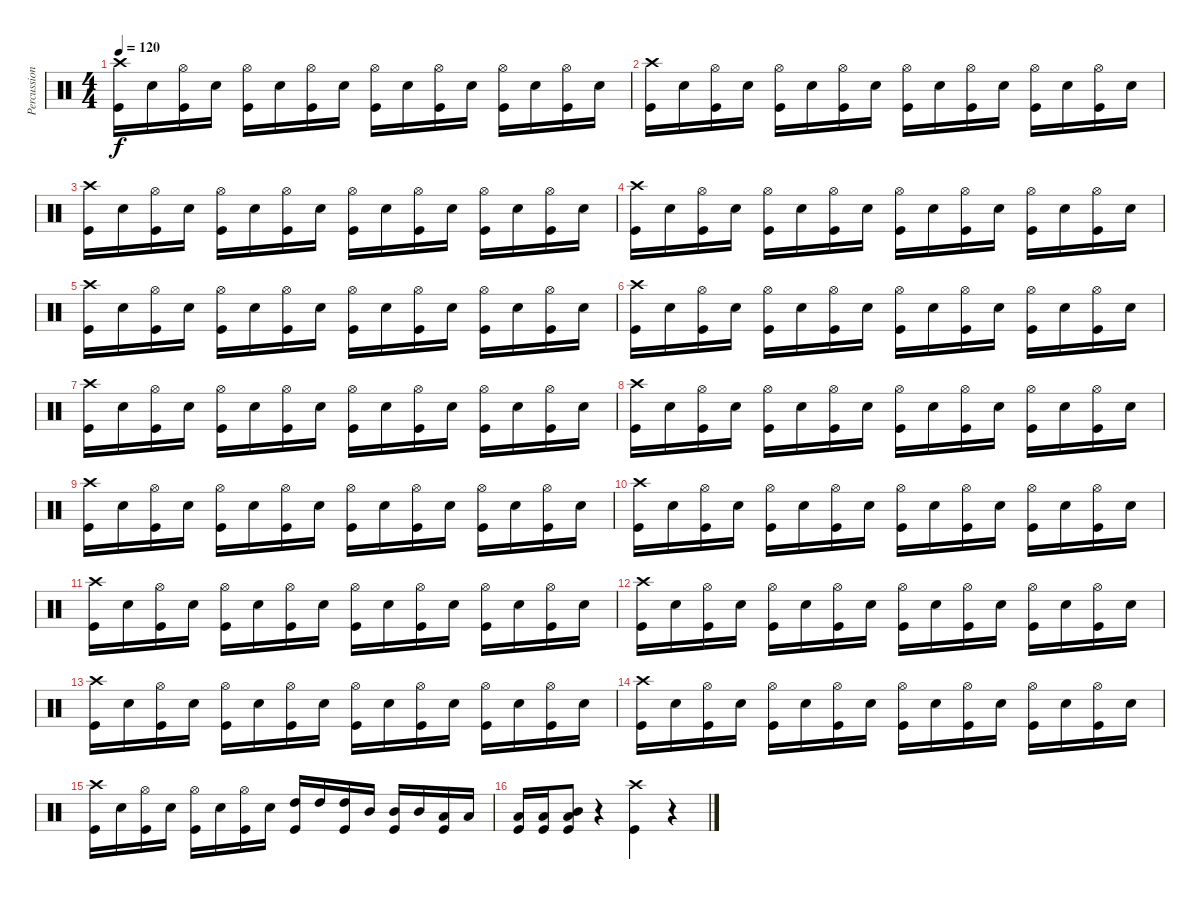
\track ("Percussioni" "Percussion") {instrument percussion}
\staff {score}
\articulation defaults
\ts (4 4)
\tempo 120
\clef neutral
\ks c
("Crash high (hit)" "Kick (hit)").16{dy f} "Electric Snare (hit)".16 ("Hi-Hat (open)" "Kick (hit)").16 "Electric Snare (hit)".16 ("Hi-Hat (open)" "Kick (hit)").16 "Electric Snare (hit)".16 ("Hi-Hat (open)" "Kick (hit)").16 "Electric Snare (hit)".16 ("Hi-Hat (open)" "Kick (hit)").16 "Electric Snare (hit)".16 ("Hi-Hat (open)" "Kick (hit)").16 "Electric Snare (hit)".16 ("Hi-Hat (open)" "Kick (hit)").16 "Electric Snare (hit)".16 ("Hi-Hat (open)" "Kick (hit)").16 "Electric Snare (hit)".16 |
("Crash high (hit)" "Kick (hit)").16 "Electric Snare (hit)".16 ("Hi-Hat (open)" "Kick (hit)").16 "Electric Snare (hit)".16 ("Hi-Hat (open)" "Kick (hit)").16 "Electric Snare (hit)".16 ("Hi-Hat (open)" "Kick (hit)").16 "Electric Snare (hit)".16 ("Hi-Hat (open)" "Kick (hit)").16 "Electric Snare (hit)".16 ("Hi-Hat (open)" "Kick (hit)").16 "Electric Snare (hit)".16 ("Hi-Hat (open)" "Kick (hit)").16 "Electric Snare (hit)".16 ("Hi-Hat (open)" "Kick (hit)").16 "Electric Snare (hit)".16 |
("Crash high (hit)" "Kick (hit)").16 "Electric Snare (hit)".16 ("Hi-Hat (open)" "Kick (hit)").16 "Electric Snare (hit)".16 ("Hi-Hat (open)" "Kick (hit)").16 "Electric Snare (hit)".16 ("Hi-Hat (open)" "Kick (hit)").16 "Electric Snare (hit)".16 ("Hi-Hat (open)" "Kick (hit)").16 "Electric Snare (hit)".16 ("Hi-Hat (open)" "Kick (hit)").16 "Electric Snare (hit)".16 ("Hi-Hat (open)" "Kick (hit)").16 "Electric Snare (hit)".16 ("Hi-Hat (open)" "Kick (hit)").16 "Electric Snare (hit)".16 |
("Crash high (hit)" "Kick (hit)").16 "Electric Snare (hit)".16 ("Hi-Hat (open)" "Kick (hit)").16 "Electric Snare (hit)".16 ("Hi-Hat (open)" "Kick (hit)").16 "Electric Snare (hit)".16 ("Hi-Hat (open)" "Kick (hit)").16 "Electric Snare (hit)".16 ("Hi-Hat (open)" "Kick (hit)").16 "Electric Snare (hit)".16 ("Hi-Hat (open)" "Kick (hit)").16 "Electric Snare (hit)".16 ("Hi-Hat (open)" "Kick (hit)").16 "Electric Snare (hit)".16 ("Hi-Hat (open)" "Kick (hit)").16 "Electric Snare (hit)".16 |
("Crash high (hit)" "Kick (hit)").16 "Electric Snare (hit)".16 ("Hi-Hat (open)" "Kick (hit)").16 "Electric Snare (hit)".16 ("Hi-Hat (open)" "Kick (hit)").16 "Electric Snare (hit)".16 ("Hi-Hat (open)" "Kick (hit)").16 "Electric Snare (hit)".16 ("Hi-Hat (open)" "Kick (hit)").16 "Electric Snare (hit)".16 ("Hi-Hat (open)" "Kick (hit)").16 "Electric Snare (hit)".16 ("Hi-Hat (open)" "Kick (hit)").16 "Electric Snare (hit)".16 ("Hi-Hat (open)" "Kick (hit)").16 "Electric Snare (hit)".16 |
("Crash high (hit)" "Kick (hit)").16 "Electric Snare (hit)".16 ("Hi-Hat (open)" "Kick (hit)").16 "Electric Snare (hit)".16 ("Hi-Hat (open)" "Kick (hit)").16 "Electric Snare (hit)".16 ("Hi-Hat (open)" "Kick (hit)").16 "Electric Snare (hit)".16 ("Hi-Hat (open)" "Kick (hit)").16 "Electric Snare (hit)".16 ("Hi-Hat (open)" "Kick (hit)").16 "Electric Snare (hit)".16 ("Hi-Hat (open)" "Kick (hit)").16 "Electric Snare (hit)".16 ("Hi-Hat (open)" "Kick (hit)").16 "Electric Snare (hit)".16 |
("Crash high (hit)" "Kick (hit)").16 "Electric Snare (hit)".16 ("Hi-Hat (open)" "Kick (hit)").16 "Electric Snare (hit)".16 ("Hi-Hat (open)" "Kick (hit)").16 "Electric Snare (hit)".16 ("Hi-Hat (open)" "Kick (hit)").16 "Electric Snare (hit)".16 ("Hi-Hat (open)" "Kick (hit)").16 "Electric Snare (hit)".16 ("Hi-Hat (open)" "Kick (hit)").16 "Electric Snare (hit)".16 ("Hi-Hat (open)" "Kick (hit)").16 "Electric Snare (hit)".16 ("Hi-Hat (open)" "Kick (hit)").16 "Electric Snare (hit)".16 |
("Crash high (hit)" "Kick (hit)").16 "Electric Snare (hit)".16 ("Hi-Hat (open)" "Kick (hit)").16 "Electric Snare (hit)".16 ("Hi-Hat (open)" "Kick (hit)").16 "Electric Snare (hit)".16 ("Hi-Hat (open)" "Kick (hit)").16 "Electric Snare (hit)".16 ("Hi-Hat (open)" "Kick (hit)").16 "Electric Snare (hit)".16 ("Hi-Hat (open)" "Kick (hit)").16 "Electric Snare (hit)".16 ("Hi-Hat (open)" "Kick (hit)").16 "Electric Snare (hit)".16 ("Hi-Hat (open)" "Kick (hit)").16 "Electric Snare (hit)".16 |
("Crash high (hit)" "Kick (hit)").16 "Electric Snare (hit)".16 ("Hi-Hat (open)" "Kick (hit)").16 "Electric Snare (hit)".16 ("Hi-Hat (open)" "Kick (hit)").16 "Electric Snare (hit)".16 ("Hi-Hat (open)" "Kick (hit)").16 "Electric Snare (hit)".16 ("Hi-Hat (open)" "Kick (hit)").16 "Electric Snare (hit)".16 ("Hi-Hat (open)" "Kick (hit)").16 "Electric Snare (hit)".16 ("Hi-Hat (open)" "Kick (hit)").16 "Electric Snare (hit)".16 ("Hi-Hat (open)" "Kick (hit)").16 "Electric Snare (hit)".16 |
("Crash high (hit)" "Kick (hit)").16 "Electric Snare (hit)".16 ("Hi-Hat (open)" "Kick (hit)").16 "Electric Snare (hit)".16 ("Hi-Hat (open)" "Kick (hit)").16 "Electric Snare (hit)".16 ("Hi-Hat (open)" "Kick (hit)").16 "Electric Snare (hit)".16 ("Hi-Hat (open)" "Kick (hit)").16 "Electric Snare (hit)".16 ("Hi-Hat (open)" "Kick (hit)").16 "Electric Snare (hit)".16 ("Hi-Hat (open)" "Kick (hit)").16 "Electric Snare (hit)".16 ("Hi-Hat (open)" "Kick (hit)").16 "Electric Snare (hit)".16 |
("Crash high (hit)" "Kick (hit)").16 "Electric Snare (hit)".16 ("Hi-Hat (open)" "Kick (hit)").16 "Electric Snare (hit)".16 ("Hi-Hat (open)" "Kick (hit)").16 "Electric Snare (hit)".16 ("Hi-Hat (open)" "Kick (hit)").16 "Electric Snare (hit)".16 ("Hi-Hat (open)" "Kick (hit)").16 "Electric Snare (hit)".16 ("Hi-Hat (open)" "Kick (hit)").16 "Electric Snare (hit)".16 ("Hi-Hat (open)" "Kick (hit)").16 "Electric Snare (hit)".16 ("Hi-Hat (open)" "Kick (hit)").16 "Electric Snare (hit)".16 |
("Crash high (hit)" "Kick (hit)").16 "Electric Snare (hit)".16 ("Hi-Hat (open)" "Kick (hit)").16 "Electric Snare (hit)".16 ("Hi-Hat (open)" "Kick (hit)").16 "Electric Snare (hit)".16 ("Hi-Hat (open)" "Kick (hit)").16 "Electric Snare (hit)".16 ("Hi-Hat (open)" "Kick (hit)").16 "Electric Snare (hit)".16 ("Hi-Hat (open)" "Kick (hit)").16 "Electric Snare (hit)".16 ("Hi-Hat (open)" "Kick (hit)").16 "Electric Snare (hit)".16 ("Hi-Hat (open)" "Kick (hit)").16 "Electric Snare (hit)".16 |
("Crash high (hit)" "Kick (hit)").16 "Electric Snare (hit)".16 ("Hi-Hat (open)" "Kick (hit)").16 "Electric Snare (hit)".16 ("Hi-Hat (open)" "Kick (hit)").16 "Electric Snare (hit)".16 ("Hi-Hat (open)" "Kick (hit)").16 "Electric Snare (hit)".16 ("Hi-Hat (open)" "Kick (hit)").16 "Electric Snare (hit)".16 ("Hi-Hat (open)" "Kick (hit)").16 "Electric Snare (hit)".16 ("Hi-Hat (open)" "Kick (hit)").16 "Electric Snare (hit)".16 ("Hi-Hat (open)" "Kick (hit)").16 "Electric Snare (hit)".16 |
("Crash high (hit)" "Kick (hit)").16 "Electric Snare (hit)".16 ("Hi-Hat (open)" "Kick (hit)").16 "Electric Snare (hit)".16 ("Hi-Hat (open)" "Kick (hit)").16 "Electric Snare (hit)".16 ("Hi-Hat (open)" "Kick (hit)").16 "Electric Snare (hit)".16 ("Hi-Hat (open)" "Kick (hit)").16 "Electric Snare (hit)".16 ("Hi-Hat (open)" "Kick (hit)").16 "Electric Snare (hit)".16 ("Hi-Hat (open)" "Kick (hit)").16 "Electric Snare (hit)".16 ("Hi-Hat (open)" "Kick (hit)").16 "Electric Snare (hit)".16 |
("Crash high (hit)" "Kick (hit)").16 "Electric Snare (hit)".16 ("Hi-Hat (open)" "Kick (hit)").16 "Electric Snare (hit)".16 ("Hi-Hat (open)" "Kick (hit)").16 "Electric Snare (hit)".16 ("Hi-Hat (open)" "Kick (hit)").16 "Electric Snare (hit)".16 ("High Tom (hit)" "Kick (hit)").16 "High Tom (hit)".16 ("High Tom (hit)" "Kick (hit)").16 "Mid Tom (hit)".16 ("Mid Tom (hit)" "Kick (hit)").16 "Mid Tom (hit)".16 ("Low Tom (hit)" "Kick (hit)").16 "Low Tom (hit)".16 |
("Low Tom (hit)" "Kick (hit)").16 ("Low Tom (hit)" "Kick (hit)").16 ("Mid Tom (hit)" "Low Tom (hit)" "Kick (hit)").8 r.4 ("Crash high (hit)" "Kick (hit)").4 r.4
